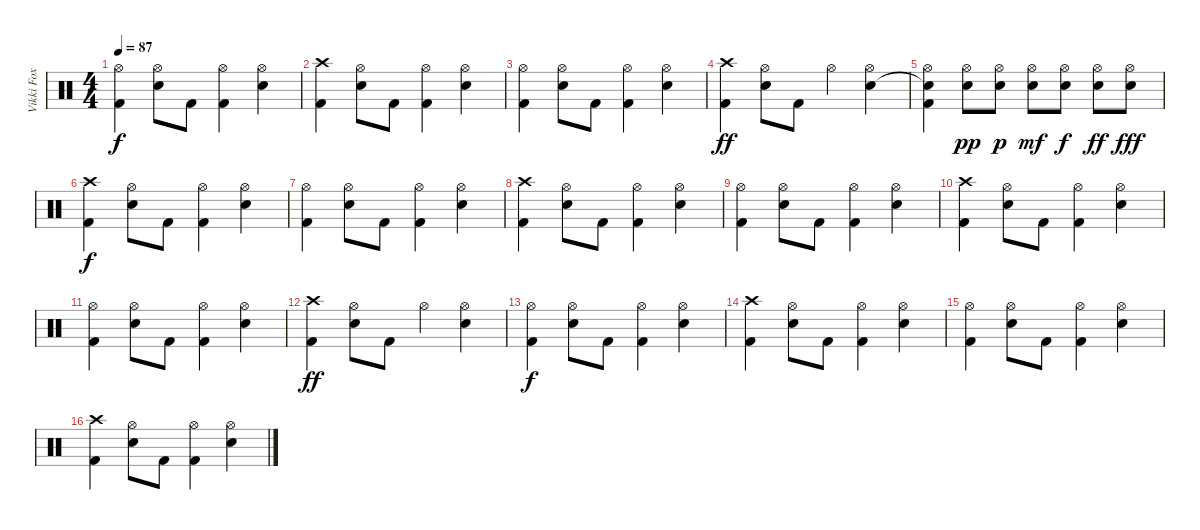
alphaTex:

\track ("Vikki Fox" "Vikki Fox") {instrument percussion}
\staff {score}
\articulation defaults
\ts (4 4)
\tempo 87
\clef neutral
\ks c
("Hi-Hat (open)" "Kick (hit) 2").4{dy f} ("Hi-Hat (open)" "Snare (hit) 2").8 "Kick (hit) 2".8 ("Hi-Hat (open)" "Kick (hit) 2").4 ("Hi-Hat (open)" "Snare (hit) 2").4 |
("Crash high (hit)" "Kick (hit) 2").4 ("Hi-Hat (open)" "Snare (hit) 2").8 "Kick (hit) 2".8 ("Hi-Hat (open)" "Kick (hit) 2").4 ("Hi-Hat (open)" "Snare (hit) 2").4 |
("Hi-Hat (open)" "Kick (hit) 2").4 ("Hi-Hat (open)" "Snare (hit) 2").8 "Kick (hit) 2".8 ("Hi-Hat (open)" "Kick (hit) 2").4 ("Hi-Hat (open)" "Snare (hit) 2").4 |
("Crash high (hit)" "Kick (hit) 2").4{dy ff} ("Hi-Hat (open)" "Snare (hit) 2").8 "Kick (hit) 2".8 "Hi-Hat (open)".4 ("Hi-Hat (open)" "Snare (hit) 2").4 |
("Hi-Hat (open)" "Snare (hit)"{t} "Kick (hit) 2").4 ("Hi-Hat (open)" "Snare (hit) 2").8{dy pp volume 11} ("Hi-Hat (open)" "Snare (hit) 2").8{dy p} ("Hi-Hat (open)" "Snare (hit) 2").8{dy mf} ("Hi-Hat (open)" "Snare (hit) 2").8{dy f} ("Hi-Hat (open)" "Snare (hit) 2").8{dy ff} ("Hi-Hat (open)" "Snare (hit) 2").8{dy fff} |
("Crash high (hit)" "Kick (hit) 2").4{dy f} ("Hi-Hat (open)" "Snare (hit) 2").8 "Kick (hit) 2".8 ("Hi-Hat (open)" "Kick (hit) 2").4 ("Hi-Hat (open)" "Snare (hit) 2").4 |
("Hi-Hat (open)" "Kick (hit) 2").4 ("Hi-Hat (open)" "Snare (hit) 2").8 "Kick (hit) 2".8 ("Hi-Hat (open)" "Kick (hit) 2").4 ("Hi-Hat (open)" "Snare (hit) 2").4 |
("Crash high (hit)" "Kick (hit) 2").4 ("Hi-Hat (open)" "Snare (hit) 2").8 "Kick (hit) 2".8 ("Hi-Hat (open)" "Kick (hit) 2").4 ("Hi-Hat (open)" "Snare (hit) 2").4 |
("Hi-Hat (open)" "Kick (hit) 2").4 ("Hi-Hat (open)" "Snare (hit) 2").8 "Kick (hit) 2".8 ("Hi-Hat (open)" "Kick (hit) 2").4 ("Hi-Hat (open)" "Snare (hit) 2").4 |
("Crash high (hit)" "Kick (hit) 2").4 ("Hi-Hat (open)" "Snare (hit) 2").8 "Kick (hit) 2".8 ("Hi-Hat (open)" "Kick (hit) 2").4 ("Hi-Hat (open)" "Snare (hit) 2").4 |
("Hi-Hat (open)" "Kick (hit) 2").4 ("Hi-Hat (open)" "Snare (hit) 2").8 "Kick (hit) 2".8 ("Hi-Hat (open)" "Kick (hit) 2").4 ("Hi-Hat (open)" "Snare (hit) 2").4 |
("Crash high (hit)" "Kick (hit) 2").4{dy ff} ("Hi-Hat (open)" "Snare (hit) 2").8 "Kick (hit) 2".8 "Hi-Hat (open)".4 ("Hi-Hat (open)" "Snare (hit) 2").4 |
("Hi-Hat (open)" "Kick (hit) 2").4{dy f} ("Hi-Hat (open)" "Snare (hit) 2").8 "Kick (hit) 2".8 ("Hi-Hat (open)" "Kick (hit) 2").4 ("Hi-Hat (open)" "Snare (hit) 2").4 |
("Crash high (hit)" "Kick (hit) 2").4 ("Hi-Hat (open)" "Snare (hit) 2").8 "Kick (hit) 2".8 ("Hi-Hat (open)" "Kick (hit) 2").4 ("Hi-Hat (open)" "Snare (hit) 2").4 |
("Hi-Hat (open)" "Kick (hit) 2").4 ("Hi-Hat (open)" "Snare (hit) 2").8 "Kick (hit) 2".8 ("Hi-Hat (open)" "Kick (hit) 2").4 ("Hi-Hat (open)" "Snare (hit) 2").4 |
("Crash high (hit)" "Kick (hit) 2").4 ("Hi-Hat (open)" "Snare (hit) 2").8 "Kick (hit) 2".8 ("Hi-Hat (open)" "Kick (hit) 2").4 ("Hi-Hat (open)" "Snare (hit) 2").4
